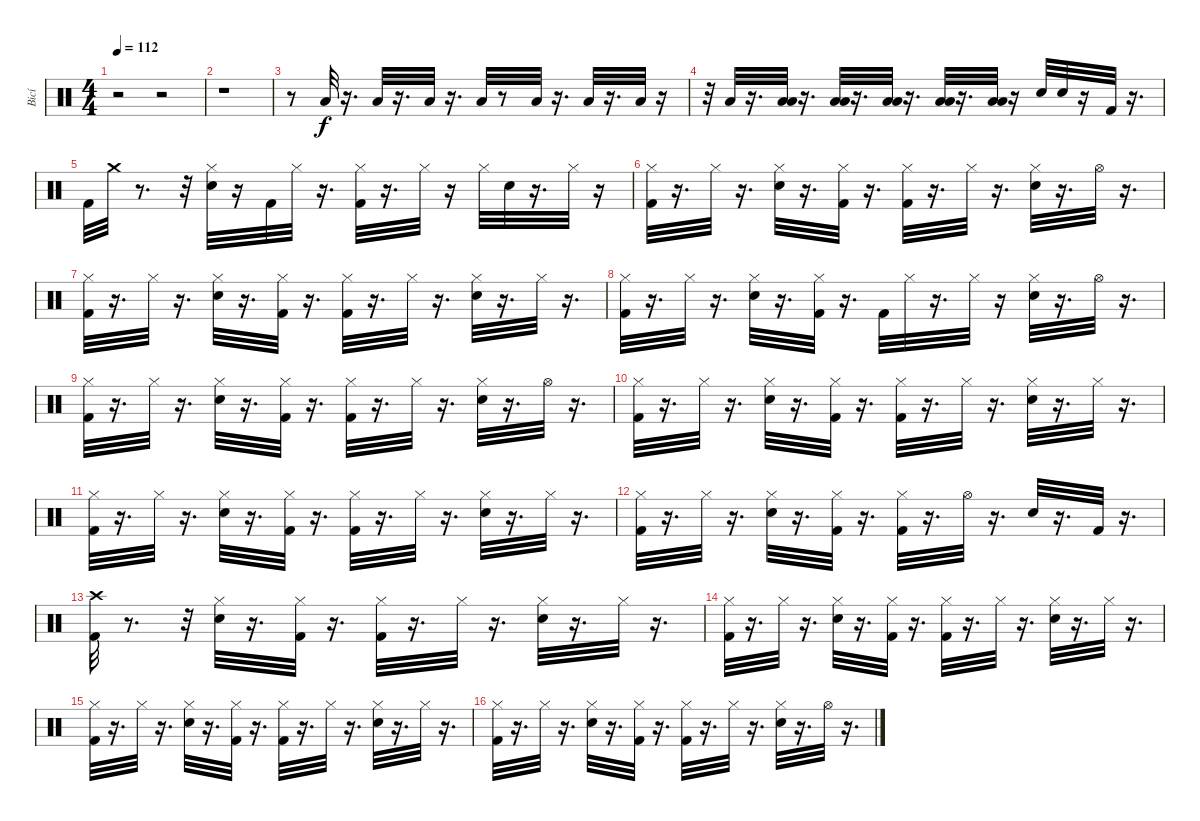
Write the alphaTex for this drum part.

\track ("Bicí" "Bicí") {instrument percussion}
\staff {score}
\articulation defaults
\ts (4 4)
\tempo 112
\clef neutral
\ks c
r.2{dy f volume 0} r.2{volume 12} |
r.1 |
r.8 "Low Floor Tom (hit)".32 r.16{d} "Low Floor Tom (hit)".32 r.16{d} "Low Floor Tom (hit)".32 r.16{d} "Low Floor Tom (hit)".32 r.8 "Low Floor Tom (hit)".32 r.16{d} "Low Floor Tom (hit)".32 r.16{d} "Low Floor Tom (hit)".32 r.16 |
r.32 "Low Floor Tom (hit)".32 r.16{d} ("Low Tom (hit)" "Low Floor Tom (hit)").32 r.16{d} ("Low Tom (hit)" "Low Floor Tom (hit)").32 r.16{d} ("Low Tom (hit)" "Low Floor Tom (hit)").32 r.16{d} ("Low Tom (hit)" "Low Floor Tom (hit)").32 r.16{d} ("Low Tom (hit)" "Low Floor Tom (hit)").32 r.16 "Snare (hit) 2".32 "Snare (hit) 2".32 r.16 "Kick (hit) 2".32 r.16{d} |
"Kick (hit) 2".32 "Crash medium (hit)".32 r.8{d} r.32 ("Snare (hit) 2" "Hi-Hat (closed)").32 r.16 "Kick (hit) 2".32 "Hi-Hat (closed)".32 r.16{d} ("Kick (hit) 2" "Hi-Hat (closed)").32 r.16{d} "Hi-Hat (closed)".32 r.16 "Hi-Hat (closed)".32 "Snare (hit) 2".32 r.16{d} "Hi-Hat (closed)".32 r.16 |
("Kick (hit) 2" "Hi-Hat (closed)").32 r.16{d} "Hi-Hat (closed)".32 r.16{d} ("Hi-Hat (closed)" "Snare (hit) 2").32 r.16{d} ("Kick (hit) 2" "Hi-Hat (closed)").32 r.16{d} ("Kick (hit) 2" "Hi-Hat (closed)").32 r.16{d} "Hi-Hat (closed)".32 r.16{d} ("Hi-Hat (closed)" "Snare (hit) 2").32 r.16{d} "Hi-Hat (open)".32 r.16{d} |
("Kick (hit) 2" "Hi-Hat (closed)").32 r.16{d} "Hi-Hat (closed)".32 r.16{d} ("Snare (hit) 2" "Hi-Hat (closed)").32 r.16{d} ("Kick (hit) 2" "Hi-Hat (closed)").32 r.16{d} ("Kick (hit) 2" "Hi-Hat (closed)").32 r.16{d} "Hi-Hat (closed)".32 r.16{d} ("Hi-Hat (closed)" "Snare (hit) 2").32 r.16{d} "Hi-Hat (closed)".32 r.16{d} |
("Kick (hit) 2" "Hi-Hat (closed)").32 r.16{d} "Hi-Hat (closed)".32 r.16{d} ("Snare (hit) 2" "Hi-Hat (closed)").32 r.16{d} ("Kick (hit) 2" "Hi-Hat (closed)").32 r.16{d} "Kick (hit) 2".32 "Hi-Hat (closed)".32 r.16{d} "Hi-Hat (closed)".32 r.16 ("Hi-Hat (closed)" "Snare (hit) 2").32 r.16{d} "Hi-Hat (open)".32 r.16{d} |
("Kick (hit) 2" "Hi-Hat (closed)").32 r.16{d} "Hi-Hat (closed)".32 r.16{d} ("Snare (hit) 2" "Hi-Hat (closed)").32 r.16{d} ("Kick (hit) 2" "Hi-Hat (closed)").32 r.16{d} ("Kick (hit) 2" "Hi-Hat (closed)").32 r.16{d} "Hi-Hat (closed)".32 r.16{d} ("Snare (hit) 2" "Hi-Hat (closed)").32 r.16{d} "Hi-Hat (open)".32 r.16{d} |
("Hi-Hat (closed)" "Kick (hit) 2").32 r.16{d} "Hi-Hat (closed)".32 r.16{d} ("Snare (hit) 2" "Hi-Hat (closed)").32 r.16{d} ("Kick (hit) 2" "Hi-Hat (closed)").32 r.16{d} ("Kick (hit) 2" "Hi-Hat (closed)").32 r.16{d} "Hi-Hat (closed)".32 r.16{d} ("Hi-Hat (closed)" "Snare (hit) 2").32 r.16{d} "Hi-Hat (closed)".32 r.16{d} |
("Kick (hit) 2" "Hi-Hat (closed)").32 r.16{d} "Hi-Hat (closed)".32 r.16{d} ("Snare (hit) 2" "Hi-Hat (closed)").32 r.16{d} ("Kick (hit) 2" "Hi-Hat (closed)").32 r.16{d} ("Kick (hit) 2" "Hi-Hat (closed)").32 r.16{d} "Hi-Hat (closed)".32 r.16{d} ("Hi-Hat (closed)" "Snare (hit) 2").32 r.16{d} "Hi-Hat (closed)".32 r.16{d} |
("Kick (hit) 2" "Hi-Hat (closed)").32 r.16{d} "Hi-Hat (closed)".32 r.16{d} ("Hi-Hat (closed)" "Snare (hit) 2").32 r.16{d} ("Hi-Hat (closed)" "Kick (hit) 2").32 r.16{d} ("Kick (hit) 2" "Hi-Hat (closed)").32 r.16{d} "Hi-Hat (open)".32 r.16{d} "Snare (hit) 2".32 r.16{d} "Kick (hit) 2".32 r.16{d} |
("Kick (hit) 2" "Crash high (hit)").32 r.8{d} r.32 ("Hi-Hat (closed)" "Snare (hit) 2").32 r.16{d} ("Kick (hit) 2" "Hi-Hat (closed)").32 r.16{d} ("Kick (hit) 2" "Hi-Hat (closed)").32 r.16{d} "Hi-Hat (closed)".32 r.16{d} ("Hi-Hat (closed)" "Snare (hit) 2").32 r.16{d} "Hi-Hat (closed)".32 r.16{d} |
("Kick (hit) 2" "Hi-Hat (closed)").32 r.16{d} "Hi-Hat (closed)".32 r.16{d} ("Snare (hit) 2" "Hi-Hat (closed)").32 r.16{d} ("Kick (hit) 2" "Hi-Hat (closed)").32 r.16{d} ("Kick (hit) 2" "Hi-Hat (closed)").32 r.16{d} "Hi-Hat (closed)".32 r.16{d} ("Snare (hit) 2" "Hi-Hat (closed)").32 r.16{d} "Hi-Hat (closed)".32 r.16{d} |
("Kick (hit) 2" "Hi-Hat (closed)").32 r.16{d} "Hi-Hat (closed)".32 r.16{d} ("Snare (hit) 2" "Hi-Hat (closed)").32 r.16{d} ("Kick (hit) 2" "Hi-Hat (closed)").32 r.16{d} ("Kick (hit) 2" "Hi-Hat (closed)").32 r.16{d} "Hi-Hat (closed)".32 r.16{d} ("Snare (hit) 2" "Hi-Hat (closed)").32 r.16{d} "Hi-Hat (closed)".32 r.16{d} |
("Kick (hit) 2" "Hi-Hat (closed)").32 r.16{d} "Hi-Hat (closed)".32 r.16{d} ("Snare (hit) 2" "Hi-Hat (closed)").32 r.16{d} ("Kick (hit) 2" "Hi-Hat (closed)").32 r.16{d} ("Kick (hit) 2" "Hi-Hat (closed)").32 r.16{d} "Hi-Hat (closed)".32 r.16{d} ("Snare (hit) 2" "Hi-Hat (closed)").32 r.16{d} "Hi-Hat (open)".32 r.16{d}
